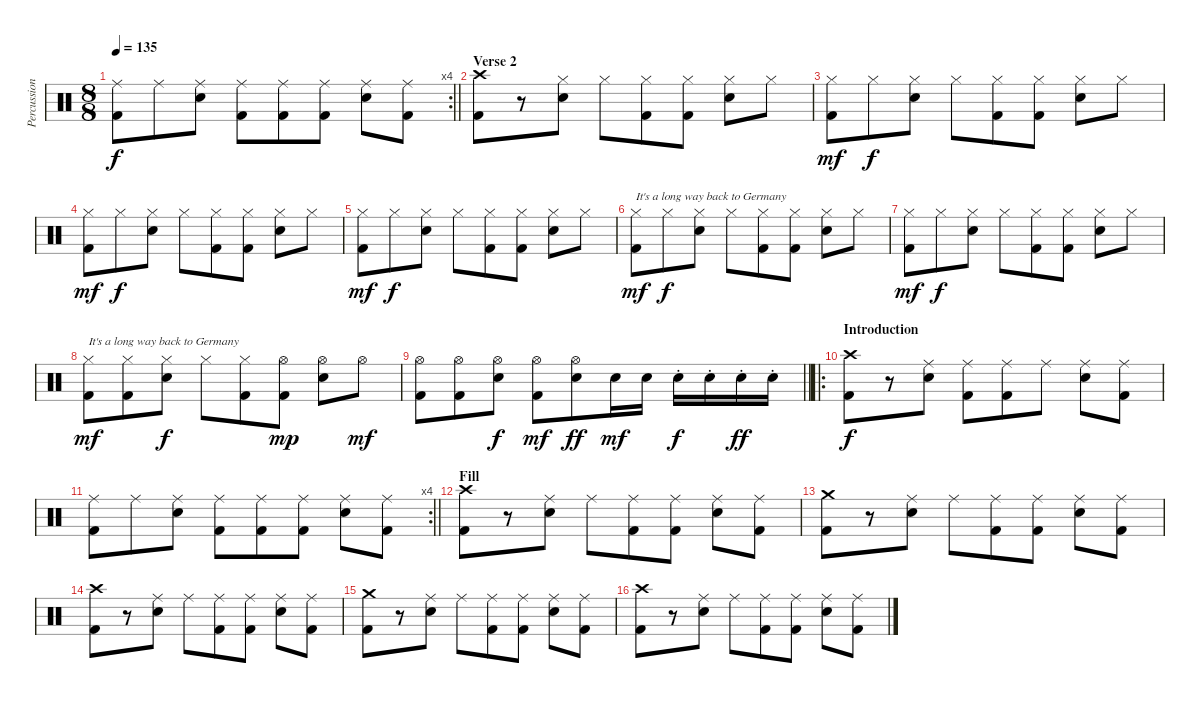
\track ("Percussion" "Percussion") {instrument percussion}
\staff {score}
\articulation defaults
\rc 4
\ts (8 8)
\tempo 135
\clef neutral
\barLineRight lightlight
\ks c
("Ride (middle)" "Kick (hit) 2").8{dy f} "Ride (middle)".8 ("Ride (middle)" "Snare (hit) 2").8 ("Ride (middle)" "Kick (hit) 2").8 ("Ride (middle)" "Kick (hit) 2").8 ("Ride (middle)" "Kick (hit) 2").8 ("Ride (middle)" "Snare (hit) 2").8 ("Ride (middle)" "Kick (hit) 2").8 |
\section ("" "Verse 2")
("Crash high (hit)" "Kick (hit) 2").8 r.8 ("Hi-Hat (closed)" "Snare (hit) 2").8 "Hi-Hat (closed)".8 ("Hi-Hat (closed)" "Kick (hit) 2").8 ("Hi-Hat (closed)" "Kick (hit) 2").8 ("Hi-Hat (closed)" "Snare (hit) 2").8 "Hi-Hat (closed)".8 |
("Hi-Hat (closed)" "Kick (hit) 2").8{dy mf} "Hi-Hat (closed)".8{dy f} ("Hi-Hat (closed)" "Snare (hit) 2").8 "Hi-Hat (closed)".8 ("Hi-Hat (closed)" "Kick (hit) 2").8 ("Hi-Hat (closed)" "Kick (hit) 2").8 ("Hi-Hat (closed)" "Snare (hit) 2").8 "Hi-Hat (closed)".8 |
("Hi-Hat (closed)" "Kick (hit) 2").8{dy mf} "Hi-Hat (closed)".8{dy f} ("Hi-Hat (closed)" "Snare (hit) 2").8 "Hi-Hat (closed)".8 ("Hi-Hat (closed)" "Kick (hit) 2").8 ("Hi-Hat (closed)" "Kick (hit) 2").8 ("Hi-Hat (closed)" "Snare (hit) 2").8 "Hi-Hat (closed)".8 |
("Hi-Hat (closed)" "Kick (hit) 2").8{dy mf} "Hi-Hat (closed)".8{dy f} ("Hi-Hat (closed)" "Snare (hit) 2").8 "Hi-Hat (closed)".8 ("Hi-Hat (closed)" "Kick (hit) 2").8 ("Hi-Hat (closed)" "Kick (hit) 2").8 ("Hi-Hat (closed)" "Snare (hit) 2").8 "Hi-Hat (closed)".8 |
("Hi-Hat (closed)" "Kick (hit) 2").8{txt "It's a long way back to Germany" dy mf} "Hi-Hat (closed)".8{dy f} ("Hi-Hat (closed)" "Snare (hit) 2").8 "Hi-Hat (closed)".8 ("Hi-Hat (closed)" "Kick (hit) 2").8 ("Hi-Hat (closed)" "Kick (hit) 2").8 ("Hi-Hat (closed)" "Snare (hit) 2").8 "Hi-Hat (closed)".8 |
("Hi-Hat (closed)" "Kick (hit) 2").8{dy mf} "Hi-Hat (closed)".8{dy f} ("Hi-Hat (closed)" "Snare (hit) 2").8 "Hi-Hat (closed)".8 ("Hi-Hat (closed)" "Kick (hit) 2").8 ("Hi-Hat (closed)" "Kick (hit) 2").8 ("Hi-Hat (closed)" "Snare (hit) 2").8 "Hi-Hat (closed)".8 |
("Hi-Hat (closed)" "Kick (hit) 2").8{txt "It's a long way back to Germany" dy mf} ("Hi-Hat (closed)" "Kick (hit) 2").8 ("Hi-Hat (closed)" "Snare (hit) 2").8{dy f} "Hi-Hat (closed)".8 ("Hi-Hat (closed)" "Kick (hit) 2").8 ("Hi-Hat (open)" "Kick (hit) 2").8{dy mp} ("Hi-Hat (open)" "Snare (hit) 2").8 "Hi-Hat (open)".8{dy mf} |
\barLineRight lightlight
("Hi-Hat (open)" "Kick (hit) 2").8 ("Hi-Hat (open)" "Kick (hit) 2").8 ("Hi-Hat (open)" "Snare (hit) 2").8{dy f} ("Hi-Hat (open)" "Kick (hit) 2").8{dy mf} ("Hi-Hat (open)" "Snare (hit) 2").8{dy ff} "Snare (hit) 2".16{dy mf} "Snare (hit) 2".16 "Snare (hit) 2"{st}.16{dy f} "Snare (hit) 2"{st}.16 "Snare (hit) 2"{st}.16{dy ff} "Snare (hit) 2"{st}.16 |
\ro
\section ("" "Introduction")
("Crash high (hit)" "Kick (hit) 2").8{dy f} r.8 ("Ride (middle)" "Snare (hit) 2").8 ("Ride (middle)" "Kick (hit) 2").8 ("Ride (middle)" "Kick (hit) 2").8 "Ride (middle)".8 ("Ride (middle)" "Snare (hit) 2").8 ("Ride (middle)" "Kick (hit) 2").8 |
\rc 4
\barLineRight lightlight
("Ride (middle)" "Kick (hit) 2").8 "Ride (middle)".8 ("Ride (middle)" "Snare (hit) 2").8 ("Ride (middle)" "Kick (hit) 2").8 ("Ride (middle)" "Kick (hit) 2").8 ("Ride (middle)" "Kick (hit) 2").8 ("Ride (middle)" "Snare (hit) 2").8 ("Ride (middle)" "Kick (hit) 2").8 |
\section ("" "Fill")
("Crash high (hit)" "Kick (hit) 2").8 r.8 ("Ride (middle)" "Snare (hit) 2").8 "Ride (middle)".8 ("Ride (middle)" "Kick (hit) 2").8 ("Ride (middle)" "Kick (hit) 2").8 ("Ride (middle)" "Snare (hit) 2").8 ("Ride (middle)" "Kick (hit) 2").8 |
("Crash medium (hit)" "Kick (hit) 2").8 r.8 ("Ride (middle)" "Snare (hit) 2").8 "Ride (middle)".8 ("Ride (middle)" "Kick (hit) 2").8 ("Ride (middle)" "Kick (hit) 2").8 ("Ride (middle)" "Snare (hit) 2").8 ("Ride (middle)" "Kick (hit) 2").8 |
("Crash high (hit)" "Kick (hit) 2").8 r.8 ("Ride (middle)" "Snare (hit) 2").8 "Ride (middle)".8 ("Ride (middle)" "Kick (hit) 2").8 ("Ride (middle)" "Kick (hit) 2").8 ("Ride (middle)" "Snare (hit) 2").8 ("Ride (middle)" "Kick (hit) 2").8 |
("Crash medium (hit)" "Kick (hit) 2").8 r.8 ("Ride (middle)" "Snare (hit) 2").8 "Ride (middle)".8 ("Ride (middle)" "Kick (hit) 2").8 ("Ride (middle)" "Kick (hit) 2").8 ("Ride (middle)" "Snare (hit) 2").8 ("Ride (middle)" "Kick (hit) 2").8 |
("Crash high (hit)" "Kick (hit) 2").8 r.8 ("Ride (middle)" "Snare (hit) 2").8 "Ride (middle)".8 ("Ride (middle)" "Kick (hit) 2").8 ("Ride (middle)" "Kick (hit) 2").8 ("Ride (middle)" "Snare (hit) 2").8 ("Ride (middle)" "Kick (hit) 2").8
